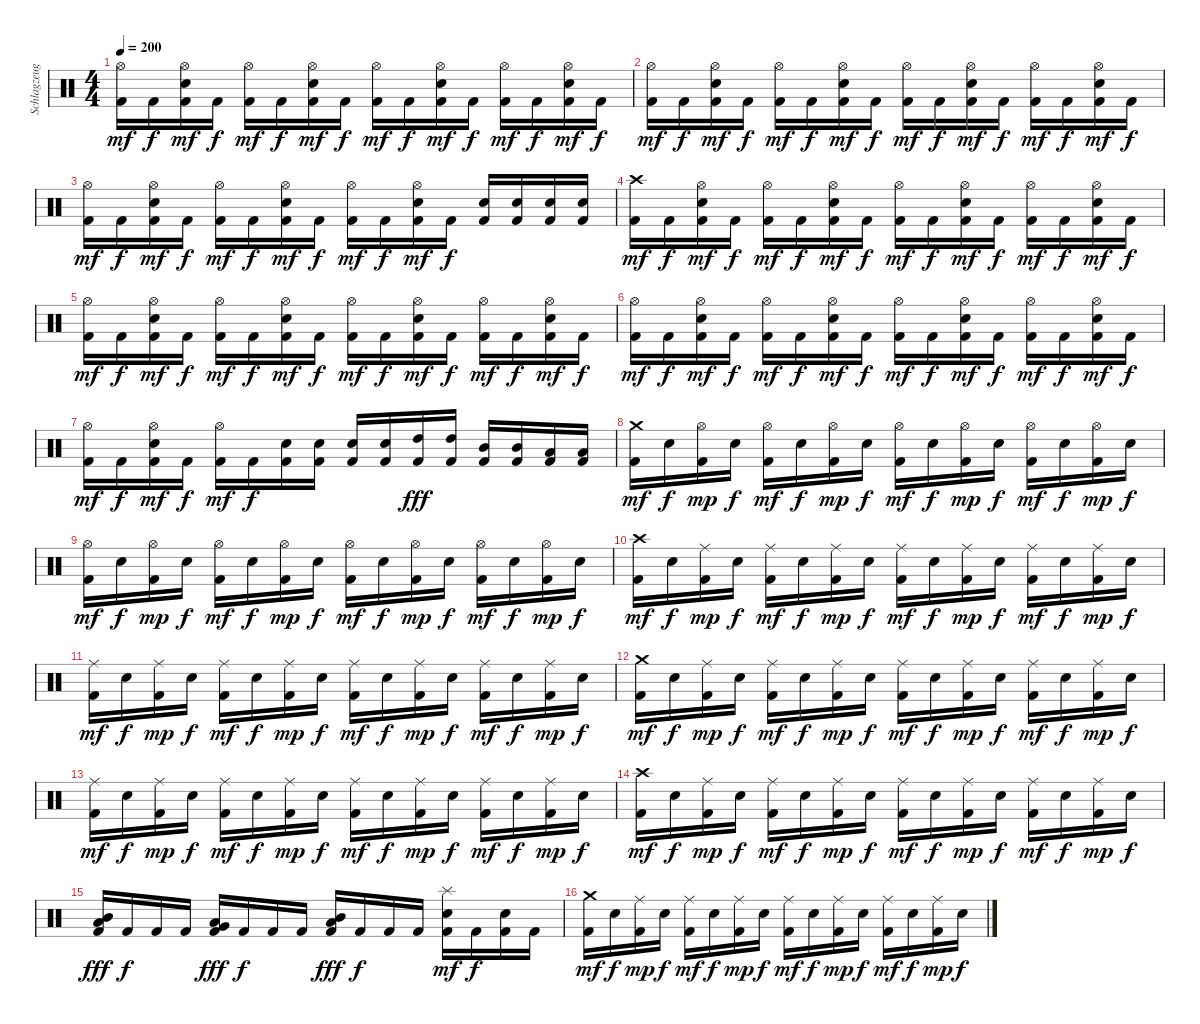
\track ("Schlagzeug" "Schlagzeug") {instrument percussion}
\staff {score}
\articulation defaults
\ts (4 4)
\tempo 200
\clef neutral
\ks c
("Hi-Hat (open)" "Kick (hit) 2").16{dy mf} "Kick (hit) 2".16{dy f} ("Hi-Hat (open)" "Electric Snare (hit)" "Kick (hit) 2").16{dy mf} "Kick (hit) 2".16{dy f} ("Hi-Hat (open)" "Kick (hit) 2").16{dy mf} "Kick (hit) 2".16{dy f} ("Hi-Hat (open)" "Electric Snare (hit)" "Kick (hit) 2").16{dy mf} "Kick (hit) 2".16{dy f} ("Hi-Hat (open)" "Kick (hit) 2").16{dy mf} "Kick (hit) 2".16{dy f} ("Hi-Hat (open)" "Electric Snare (hit)" "Kick (hit) 2").16{dy mf} "Kick (hit) 2".16{dy f} ("Hi-Hat (open)" "Kick (hit) 2").16{dy mf} "Kick (hit) 2".16{dy f} ("Hi-Hat (open)" "Electric Snare (hit)" "Kick (hit) 2").16{dy mf} "Kick (hit) 2".16{dy f} |
("Hi-Hat (open)" "Kick (hit) 2").16{dy mf} "Kick (hit) 2".16{dy f} ("Hi-Hat (open)" "Electric Snare (hit)" "Kick (hit) 2").16{dy mf} "Kick (hit) 2".16{dy f} ("Hi-Hat (open)" "Kick (hit) 2").16{dy mf} "Kick (hit) 2".16{dy f} ("Hi-Hat (open)" "Electric Snare (hit)" "Kick (hit) 2").16{dy mf} "Kick (hit) 2".16{dy f} ("Hi-Hat (open)" "Kick (hit) 2").16{dy mf} "Kick (hit) 2".16{dy f} ("Hi-Hat (open)" "Electric Snare (hit)" "Kick (hit) 2").16{dy mf} "Kick (hit) 2".16{dy f} ("Hi-Hat (open)" "Kick (hit) 2").16{dy mf} "Kick (hit) 2".16{dy f} ("Hi-Hat (open)" "Electric Snare (hit)" "Kick (hit) 2").16{dy mf} "Kick (hit) 2".16{dy f} |
("Hi-Hat (open)" "Kick (hit) 2").16{dy mf} "Kick (hit) 2".16{dy f} ("Hi-Hat (open)" "Electric Snare (hit)" "Kick (hit) 2").16{dy mf} "Kick (hit) 2".16{dy f} ("Hi-Hat (open)" "Kick (hit) 2").16{dy mf} "Kick (hit) 2".16{dy f} ("Hi-Hat (open)" "Electric Snare (hit)" "Kick (hit) 2").16{dy mf} "Kick (hit) 2".16{dy f} ("Hi-Hat (open)" "Kick (hit) 2").16{dy mf} "Kick (hit) 2".16{dy f} ("Hi-Hat (open)" "Electric Snare (hit)" "Kick (hit) 2").16{dy mf} "Kick (hit) 2".16{dy f} ("Electric Snare (hit)" "Kick (hit) 2").16 ("Electric Snare (hit)" "Kick (hit) 2").16 ("Electric Snare (hit)" "Kick (hit) 2").16 ("Electric Snare (hit)" "Kick (hit) 2").16 |
("Crash high (hit)" "Kick (hit) 2").16{dy mf} "Kick (hit) 2".16{dy f} ("Hi-Hat (open)" "Electric Snare (hit)" "Kick (hit) 2").16{dy mf} "Kick (hit) 2".16{dy f} ("Hi-Hat (open)" "Kick (hit) 2").16{dy mf} "Kick (hit) 2".16{dy f} ("Hi-Hat (open)" "Electric Snare (hit)" "Kick (hit) 2").16{dy mf} "Kick (hit) 2".16{dy f} ("Hi-Hat (open)" "Kick (hit) 2").16{dy mf} "Kick (hit) 2".16{dy f} ("Hi-Hat (open)" "Electric Snare (hit)" "Kick (hit) 2").16{dy mf} "Kick (hit) 2".16{dy f} ("Hi-Hat (open)" "Kick (hit) 2").16{dy mf} "Kick (hit) 2".16{dy f} ("Hi-Hat (open)" "Electric Snare (hit)" "Kick (hit) 2").16{dy mf} "Kick (hit) 2".16{dy f} |
("Hi-Hat (open)" "Kick (hit) 2").16{dy mf} "Kick (hit) 2".16{dy f} ("Hi-Hat (open)" "Electric Snare (hit)" "Kick (hit) 2").16{dy mf} "Kick (hit) 2".16{dy f} ("Hi-Hat (open)" "Kick (hit) 2").16{dy mf} "Kick (hit) 2".16{dy f} ("Hi-Hat (open)" "Electric Snare (hit)" "Kick (hit) 2").16{dy mf} "Kick (hit) 2".16{dy f} ("Hi-Hat (open)" "Kick (hit) 2").16{dy mf} "Kick (hit) 2".16{dy f} ("Hi-Hat (open)" "Electric Snare (hit)" "Kick (hit) 2").16{dy mf} "Kick (hit) 2".16{dy f} ("Hi-Hat (open)" "Kick (hit) 2").16{dy mf} "Kick (hit) 2".16{dy f} ("Hi-Hat (open)" "Electric Snare (hit)" "Kick (hit) 2").16{dy mf} "Kick (hit) 2".16{dy f} |
("Hi-Hat (open)" "Kick (hit) 2").16{dy mf} "Kick (hit) 2".16{dy f} ("Hi-Hat (open)" "Electric Snare (hit)" "Kick (hit) 2").16{dy mf} "Kick (hit) 2".16{dy f} ("Hi-Hat (open)" "Kick (hit) 2").16{dy mf} "Kick (hit) 2".16{dy f} ("Hi-Hat (open)" "Electric Snare (hit)" "Kick (hit) 2").16{dy mf} "Kick (hit) 2".16{dy f} ("Hi-Hat (open)" "Kick (hit) 2").16{dy mf} "Kick (hit) 2".16{dy f} ("Hi-Hat (open)" "Electric Snare (hit)" "Kick (hit) 2").16{dy mf} "Kick (hit) 2".16{dy f} ("Hi-Hat (open)" "Kick (hit) 2").16{dy mf} "Kick (hit) 2".16{dy f} ("Hi-Hat (open)" "Electric Snare (hit)" "Kick (hit) 2").16{dy mf} "Kick (hit) 2".16{dy f} |
("Hi-Hat (open)" "Kick (hit) 2").16{dy mf} "Kick (hit) 2".16{dy f} ("Hi-Hat (open)" "Electric Snare (hit)" "Kick (hit) 2").16{dy mf} "Kick (hit) 2".16{dy f} ("Hi-Hat (open)" "Kick (hit) 2").16{dy mf} "Kick (hit) 2".16{dy f} ("Electric Snare (hit)" "Kick (hit) 2").16 ("Electric Snare (hit)" "Kick (hit) 2").16 ("Electric Snare (hit)" "Kick (hit) 2").16 ("Electric Snare (hit)" "Kick (hit) 2").16 ("High Tom (hit)" "Kick (hit) 2").16{dy fff} ("High Tom (hit)" "Kick (hit) 2").16 ("Mid Tom (hit)" "Kick (hit) 2").16 ("Mid Tom (hit)" "Kick (hit) 2").16 ("Low Tom (hit)" "Kick (hit) 2").16 ("Low Tom (hit)" "Kick (hit) 2").16 |
("Crash medium (hit)" "Kick (hit) 2").16{dy mf} "Electric Snare (hit)".16{dy f} ("Hi-Hat (open)" "Kick (hit) 2").16{dy mp} "Electric Snare (hit)".16{dy f} ("Hi-Hat (open)" "Kick (hit) 2").16{dy mf} "Electric Snare (hit)".16{dy f} ("Hi-Hat (open)" "Kick (hit) 2").16{dy mp} "Electric Snare (hit)".16{dy f} ("Hi-Hat (open)" "Kick (hit) 2").16{dy mf} "Electric Snare (hit)".16{dy f} ("Hi-Hat (open)" "Kick (hit) 2").16{dy mp} "Electric Snare (hit)".16{dy f} ("Hi-Hat (open)" "Kick (hit) 2").16{dy mf} "Electric Snare (hit)".16{dy f} ("Hi-Hat (open)" "Kick (hit) 2").16{dy mp} "Electric Snare (hit)".16{dy f} |
("Hi-Hat (open)" "Kick (hit) 2").16{dy mf} "Electric Snare (hit)".16{dy f} ("Hi-Hat (open)" "Kick (hit) 2").16{dy mp} "Electric Snare (hit)".16{dy f} ("Hi-Hat (open)" "Kick (hit) 2").16{dy mf} "Electric Snare (hit)".16{dy f} ("Hi-Hat (open)" "Kick (hit) 2").16{dy mp} "Electric Snare (hit)".16{dy f} ("Hi-Hat (open)" "Kick (hit) 2").16{dy mf} "Electric Snare (hit)".16{dy f} ("Hi-Hat (open)" "Kick (hit) 2").16{dy mp} "Electric Snare (hit)".16{dy f} ("Hi-Hat (open)" "Kick (hit) 2").16{dy mf} "Electric Snare (hit)".16{dy f} ("Hi-Hat (open)" "Kick (hit) 2").16{dy mp} "Electric Snare (hit)".16{dy f} |
("Crash high (hit)" "Kick (hit) 2").16{dy mf} "Electric Snare (hit)".16{dy f} ("Ride (middle)" "Kick (hit) 2").16{dy mp} "Electric Snare (hit)".16{dy f} ("Ride (middle)" "Kick (hit) 2").16{dy mf} "Electric Snare (hit)".16{dy f} ("Ride (middle)" "Kick (hit) 2").16{dy mp} "Electric Snare (hit)".16{dy f} ("Ride (middle)" "Kick (hit) 2").16{dy mf} "Electric Snare (hit)".16{dy f} ("Ride (middle)" "Kick (hit) 2").16{dy mp} "Electric Snare (hit)".16{dy f} ("Ride (middle)" "Kick (hit) 2").16{dy mf} "Electric Snare (hit)".16{dy f} ("Ride (middle)" "Kick (hit) 2").16{dy mp} "Electric Snare (hit)".16{dy f} |
("Ride (middle)" "Kick (hit) 2").16{dy mf} "Electric Snare (hit)".16{dy f} ("Ride (middle)" "Kick (hit) 2").16{dy mp} "Electric Snare (hit)".16{dy f} ("Ride (middle)" "Kick (hit) 2").16{dy mf} "Electric Snare (hit)".16{dy f} ("Ride (middle)" "Kick (hit) 2").16{dy mp} "Electric Snare (hit)".16{dy f} ("Ride (middle)" "Kick (hit) 2").16{dy mf} "Electric Snare (hit)".16{dy f} ("Ride (middle)" "Kick (hit) 2").16{dy mp} "Electric Snare (hit)".16{dy f} ("Ride (middle)" "Kick (hit) 2").16{dy mf} "Electric Snare (hit)".16{dy f} ("Ride (middle)" "Kick (hit) 2").16{dy mp} "Electric Snare (hit)".16{dy f} |
("Crash medium (hit)" "Kick (hit) 2").16{dy mf} "Electric Snare (hit)".16{dy f} ("Ride (middle)" "Kick (hit) 2").16{dy mp} "Electric Snare (hit)".16{dy f} ("Ride (middle)" "Kick (hit) 2").16{dy mf} "Electric Snare (hit)".16{dy f} ("Ride (middle)" "Kick (hit) 2").16{dy mp} "Electric Snare (hit)".16{dy f} ("Ride (middle)" "Kick (hit) 2").16{dy mf} "Electric Snare (hit)".16{dy f} ("Ride (middle)" "Kick (hit) 2").16{dy mp} "Electric Snare (hit)".16{dy f} ("Ride (middle)" "Kick (hit) 2").16{dy mf} "Electric Snare (hit)".16{dy f} ("Ride (middle)" "Kick (hit) 2").16{dy mp} "Electric Snare (hit)".16{dy f} |
("Ride (middle)" "Kick (hit) 2").16{dy mf} "Electric Snare (hit)".16{dy f} ("Ride (middle)" "Kick (hit) 2").16{dy mp} "Electric Snare (hit)".16{dy f} ("Ride (middle)" "Kick (hit) 2").16{dy mf} "Electric Snare (hit)".16{dy f} ("Ride (middle)" "Kick (hit) 2").16{dy mp} "Electric Snare (hit)".16{dy f} ("Ride (middle)" "Kick (hit) 2").16{dy mf} "Electric Snare (hit)".16{dy f} ("Ride (middle)" "Kick (hit) 2").16{dy mp} "Electric Snare (hit)".16{dy f} ("Ride (middle)" "Kick (hit) 2").16{dy mf} "Electric Snare (hit)".16{dy f} ("Ride (middle)" "Kick (hit) 2").16{dy mp} "Electric Snare (hit)".16{dy f} |
("Crash high (hit)" "Kick (hit) 2").16{dy mf} "Electric Snare (hit)".16{dy f} ("Ride (middle)" "Kick (hit) 2").16{dy mp} "Electric Snare (hit)".16{dy f} ("Ride (middle)" "Kick (hit) 2").16{dy mf} "Electric Snare (hit)".16{dy f} ("Ride (middle)" "Kick (hit) 2").16{dy mp} "Electric Snare (hit)".16{dy f} ("Ride (middle)" "Kick (hit) 2").16{dy mf} "Electric Snare (hit)".16{dy f} ("Ride (middle)" "Kick (hit) 2").16{dy mp} "Electric Snare (hit)".16{dy f} ("Ride (middle)" "Kick (hit) 2").16{dy mf} "Electric Snare (hit)".16{dy f} ("Ride (middle)" "Kick (hit) 2").16{dy mp} "Electric Snare (hit)".16{dy f} |
("Mid Tom (hit)" "Low Tom (hit)" "Kick (hit) 2").16{bd 480 dy fff} "Kick (hit) 2".16{dy f} "Kick (hit) 2".16 "Kick (hit) 2".16 ("Low Tom (hit)" "Very Low Tom (hit)" "Kick (hit) 2").16{bd 480 dy fff} "Kick (hit) 2".16{dy f} "Kick (hit) 2".16 "Kick (hit) 2".16 ("Mid Tom (hit)" "Low Tom (hit)" "Kick (hit) 2").16{bd 480 dy fff} "Kick (hit) 2".16{dy f} "Kick (hit) 2".16 "Kick (hit) 2".16 ("Splash (hit)" "Electric Snare (hit)" "Kick (hit) 2").16{dy mf} "Kick (hit) 2".16{dy f} ("Electric Snare (hit)" "Kick (hit) 2").16 "Kick (hit) 2".16 |
("Crash medium (hit)" "Kick (hit) 2").16{dy mf} "Electric Snare (hit)".16{dy f} ("Ride (middle)" "Kick (hit) 2").16{dy mp} "Electric Snare (hit)".16{dy f} ("Ride (middle)" "Kick (hit) 2").16{dy mf} "Electric Snare (hit)".16{dy f} ("Ride (middle)" "Kick (hit) 2").16{dy mp} "Electric Snare (hit)".16{dy f} ("Ride (middle)" "Kick (hit) 2").16{dy mf} "Electric Snare (hit)".16{dy f} ("Ride (middle)" "Kick (hit) 2").16{dy mp} "Electric Snare (hit)".16{dy f} ("Ride (middle)" "Kick (hit) 2").16{dy mf} "Electric Snare (hit)".16{dy f} ("Ride (middle)" "Kick (hit) 2").16{dy mp} "Electric Snare (hit)".16{dy f}
